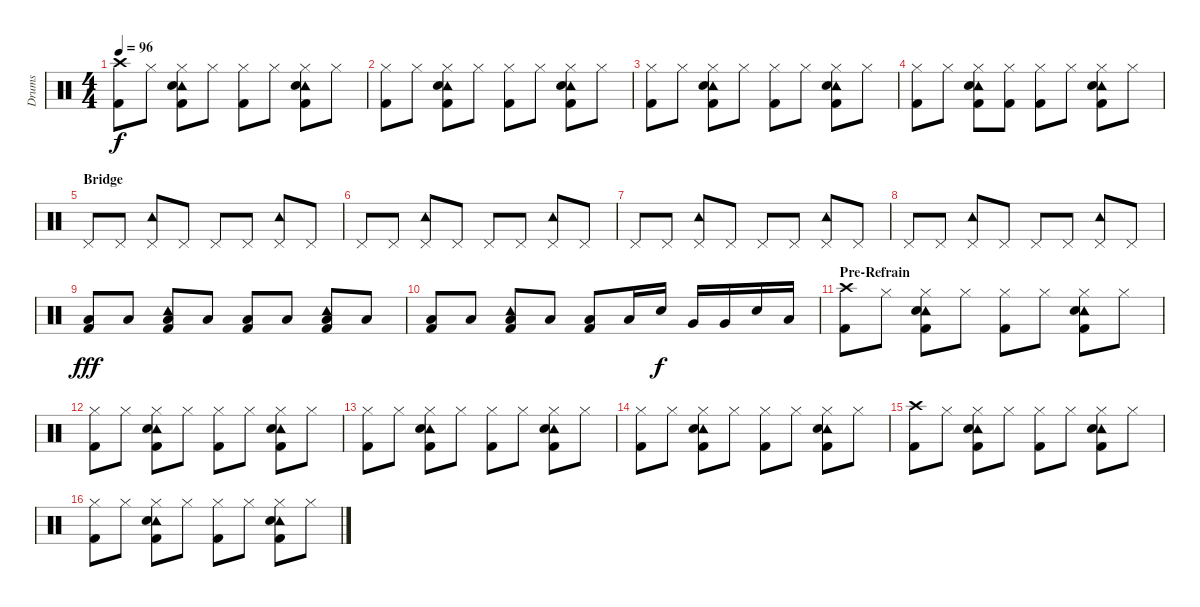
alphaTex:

\track ("Drums" "Drums") {instrument percussion}
\staff {score}
\articulation defaults
\ts (4 4)
\tempo 96
\clef neutral
\ks c
("Crash high (hit)" "Kick (hit) 2").8{dy f} "Hi-Hat (closed)".8 ("Hi-Hat (closed)" "Tambourine (hit)" "Snare (hit) 2" "Kick (hit) 2").8 "Hi-Hat (closed)".8 ("Hi-Hat (closed)" "Kick (hit) 2").8 "Hi-Hat (closed)".8 ("Hi-Hat (closed)" "Tambourine (hit)" "Snare (hit) 2" "Kick (hit) 2").8 "Hi-Hat (closed)".8 |
("Hi-Hat (closed)" "Kick (hit) 2").8 "Hi-Hat (closed)".8 ("Hi-Hat (closed)" "Tambourine (hit)" "Snare (hit) 2" "Kick (hit) 2").8 "Hi-Hat (closed)".8 ("Hi-Hat (closed)" "Kick (hit) 2").8 "Hi-Hat (closed)".8 ("Hi-Hat (closed)" "Tambourine (hit)" "Snare (hit) 2" "Kick (hit) 2").8 "Hi-Hat (closed)".8 |
("Hi-Hat (closed)" "Kick (hit) 2").8 "Hi-Hat (closed)".8 ("Hi-Hat (closed)" "Tambourine (hit)" "Snare (hit) 2" "Kick (hit) 2").8 "Hi-Hat (closed)".8 ("Hi-Hat (closed)" "Kick (hit) 2").8 "Hi-Hat (closed)".8 ("Hi-Hat (closed)" "Tambourine (hit)" "Snare (hit) 2" "Kick (hit) 2").8 "Hi-Hat (closed)".8 |
("Hi-Hat (closed)" "Kick (hit) 2").8 "Hi-Hat (closed)".8 ("Hi-Hat (closed)" "Tambourine (hit)" "Snare (hit) 2" "Kick (hit) 2").8 ("Hi-Hat (closed)" "Kick (hit) 2").8 ("Hi-Hat (closed)" "Kick (hit) 2").8 "Hi-Hat (closed)".8 ("Hi-Hat (closed)" "Tambourine (hit)" "Snare (hit) 2" "Kick (hit) 2").8 "Hi-Hat (closed)".8 |
\section ("" "Bridge")
"Pedal Hi-Hat (hit)".8 "Pedal Hi-Hat (hit)".8 ("Pedal Hi-Hat (hit)" "Tambourine (hit)").8 "Pedal Hi-Hat (hit)".8 "Pedal Hi-Hat (hit)".8 "Pedal Hi-Hat (hit)".8 ("Pedal Hi-Hat (hit)" "Tambourine (hit)").8 "Pedal Hi-Hat (hit)".8 |
"Pedal Hi-Hat (hit)".8 "Pedal Hi-Hat (hit)".8 ("Pedal Hi-Hat (hit)" "Tambourine (hit)").8 "Pedal Hi-Hat (hit)".8 "Pedal Hi-Hat (hit)".8 "Pedal Hi-Hat (hit)".8 ("Pedal Hi-Hat (hit)" "Tambourine (hit)").8 "Pedal Hi-Hat (hit)".8 |
"Pedal Hi-Hat (hit)".8 "Pedal Hi-Hat (hit)".8 ("Pedal Hi-Hat (hit)" "Tambourine (hit)").8 "Pedal Hi-Hat (hit)".8 "Pedal Hi-Hat (hit)".8 "Pedal Hi-Hat (hit)".8 ("Pedal Hi-Hat (hit)" "Tambourine (hit)").8 "Pedal Hi-Hat (hit)".8 |
"Pedal Hi-Hat (hit)".8 "Pedal Hi-Hat (hit)".8 ("Pedal Hi-Hat (hit)" "Tambourine (hit)").8 "Pedal Hi-Hat (hit)".8 "Pedal Hi-Hat (hit)".8 "Pedal Hi-Hat (hit)".8 ("Pedal Hi-Hat (hit)" "Tambourine (hit)").8 "Pedal Hi-Hat (hit)".8 |
("Low Floor Tom (hit)" "Kick (hit) 2").8{dy fff} "Low Floor Tom (hit)".8 ("Tambourine (hit)" "Low Floor Tom (hit)" "Kick (hit) 2").8 "Low Floor Tom (hit)".8 ("Low Floor Tom (hit)" "Kick (hit) 2").8 "Low Floor Tom (hit)".8 ("Tambourine (hit)" "Low Floor Tom (hit)" "Kick (hit) 2").8 "Low Floor Tom (hit)".8 |
("Low Floor Tom (hit)" "Kick (hit) 2").8 "Low Floor Tom (hit)".8 ("Tambourine (hit)" "Low Floor Tom (hit)" "Kick (hit) 2").8 "Low Floor Tom (hit)".8 ("Low Floor Tom (hit)" "Kick (hit) 2").8 "Low Floor Tom (hit)".16 "Snare (hit) 2".16{dy f} "Very Low Tom (hit)".16 "Very Low Tom (hit)".16 "Snare (hit) 2".16 "Low Floor Tom (hit)".16 |
\section ("" "Pre-Refrain")
("Crash high (hit)" "Kick (hit) 2").8 "Hi-Hat (closed)".8 ("Hi-Hat (closed)" "Tambourine (hit)" "Snare (hit) 2" "Kick (hit) 2").8 "Hi-Hat (closed)".8 ("Hi-Hat (closed)" "Kick (hit) 2").8 "Hi-Hat (closed)".8 ("Hi-Hat (closed)" "Tambourine (hit)" "Snare (hit) 2" "Kick (hit) 2").8 "Hi-Hat (closed)".8 |
("Hi-Hat (closed)" "Kick (hit) 2").8 "Hi-Hat (closed)".8 ("Hi-Hat (closed)" "Tambourine (hit)" "Snare (hit) 2" "Kick (hit) 2").8 "Hi-Hat (closed)".8 ("Hi-Hat (closed)" "Kick (hit) 2").8 "Hi-Hat (closed)".8 ("Hi-Hat (closed)" "Tambourine (hit)" "Snare (hit) 2" "Kick (hit) 2").8 "Hi-Hat (closed)".8 |
("Hi-Hat (closed)" "Kick (hit) 2").8 "Hi-Hat (closed)".8 ("Hi-Hat (closed)" "Tambourine (hit)" "Snare (hit) 2" "Kick (hit) 2").8 "Hi-Hat (closed)".8 ("Hi-Hat (closed)" "Kick (hit) 2").8 "Hi-Hat (closed)".8 ("Hi-Hat (closed)" "Tambourine (hit)" "Snare (hit) 2" "Kick (hit) 2").8 "Hi-Hat (closed)".8 |
("Hi-Hat (closed)" "Kick (hit) 2").8 "Hi-Hat (closed)".8 ("Hi-Hat (closed)" "Tambourine (hit)" "Snare (hit) 2" "Kick (hit) 2").8 "Hi-Hat (closed)".8 ("Hi-Hat (closed)" "Kick (hit) 2").8 "Hi-Hat (closed)".8 ("Hi-Hat (closed)" "Tambourine (hit)" "Snare (hit) 2" "Kick (hit) 2").8 "Hi-Hat (closed)".8 |
("Crash high (hit)" "Kick (hit) 2").8 "Hi-Hat (closed)".8 ("Hi-Hat (closed)" "Tambourine (hit)" "Snare (hit) 2" "Kick (hit) 2").8 "Hi-Hat (closed)".8 ("Hi-Hat (closed)" "Kick (hit) 2").8 "Hi-Hat (closed)".8 ("Hi-Hat (closed)" "Tambourine (hit)" "Snare (hit) 2" "Kick (hit) 2").8 "Hi-Hat (closed)".8 |
("Hi-Hat (closed)" "Kick (hit) 2").8 "Hi-Hat (closed)".8 ("Hi-Hat (closed)" "Tambourine (hit)" "Snare (hit) 2" "Kick (hit) 2").8 "Hi-Hat (closed)".8 ("Hi-Hat (closed)" "Kick (hit) 2").8 "Hi-Hat (closed)".8 ("Hi-Hat (closed)" "Tambourine (hit)" "Snare (hit) 2" "Kick (hit) 2").8 "Hi-Hat (closed)".8
